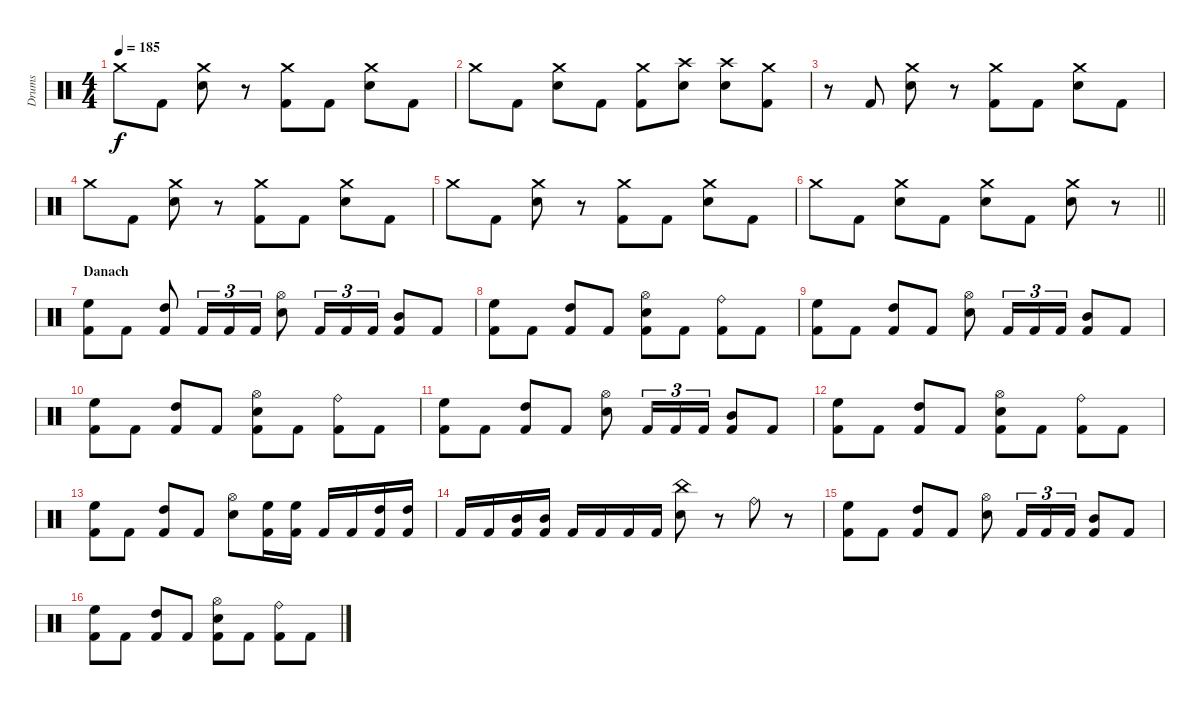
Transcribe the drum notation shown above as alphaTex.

\track ("Drums" "Drums") {instrument percussion}
\staff {score}
\articulation defaults
\ts (4 4)
\tempo 185
\clef neutral
\ks c "Crash medium (hit)".8{dy f} "Kick (hit) 2".8
("Crash medium (hit)" "Electric Snare (hit)").8 r.8 ("Crash medium (hit)" "Kick (hit) 2").8 "Kick (hit) 2".8 ("Crash medium (hit)" "Electric Snare (hit)").8 "Kick (hit) 2".8 |
"Crash medium (hit)".8 "Kick (hit) 2".8 ("Crash medium (hit)" "Electric Snare (hit)").8 "Kick (hit) 2".8 ("Crash medium (hit)" "Kick (hit) 2").8 ("Crash high (hit)" "Electric Snare (hit)").8 ("Crash high (hit)" "Electric Snare (hit)").8 ("Crash medium (hit)" "Kick (hit) 2").8 |
r.8 "Kick (hit) 2".8 ("Crash medium (hit)" "Electric Snare (hit)").8 r.8 ("Crash medium (hit)" "Kick (hit) 2").8 "Kick (hit) 2".8 ("Crash medium (hit)" "Electric Snare (hit)").8 "Kick (hit) 2".8 |
"Crash medium (hit)".8 "Kick (hit) 2".8 ("Crash medium (hit)" "Electric Snare (hit)").8 r.8 ("Crash medium (hit)" "Kick (hit) 2").8 "Kick (hit) 2".8 ("Crash medium (hit)" "Electric Snare (hit)").8 "Kick (hit) 2".8 |
"Crash medium (hit)".8 "Kick (hit) 2".8 ("Crash medium (hit)" "Electric Snare (hit)").8 r.8 ("Crash medium (hit)" "Kick (hit) 2").8 "Kick (hit) 2".8 ("Crash medium (hit)" "Electric Snare (hit)").8 "Kick (hit) 2".8 |
\barLineRight lightlight "Crash medium (hit)".8 "Kick (hit) 2".8
("Crash medium (hit)" "Electric Snare (hit)").8 "Kick (hit) 2".8 ("Crash medium (hit)" "Electric Snare (hit)").8 "Kick (hit) 2".8 ("Crash medium (hit)" "Electric Snare (hit)").8 r.8 |
\section ("" "Danach")
("High Floor Tom (hit)" "Kick (hit) 2").8 "Kick (hit) 2".8 ("High Tom (hit)" "Kick (hit) 2").8 "Kick (hit) 2".16{tu (3 2)} "Kick (hit) 2".16{tu (3 2)} "Kick (hit) 2".16{tu (3 2)} ("Hi-Hat (open)" "Electric Snare (hit)").8 "Kick (hit) 2".16{tu (3 2)} "Kick (hit) 2".16{tu (3 2)} "Kick (hit) 2".16{tu (3 2)} ("Mid Tom (hit)" "Kick (hit) 2").8 "Kick (hit) 2".8 |
("High Floor Tom (hit)" "Kick (hit) 2").8 "Kick (hit) 2".8 ("High Tom (hit)" "Kick (hit) 2").8 "Kick (hit) 2".8 ("Hi-Hat (open)" "Electric Snare (hit)" "Kick (hit) 2").8 "Kick (hit) 2".8 ("Ride (bell)" "Kick (hit) 2").8 "Kick (hit) 2".8 |
("High Floor Tom (hit)" "Kick (hit) 2").8 "Kick (hit) 2".8 ("High Tom (hit)" "Kick (hit) 2").8 "Kick (hit) 2".8 ("Hi-Hat (open)" "Electric Snare (hit)").8 "Kick (hit) 2".16{tu (3 2)} "Kick (hit) 2".16{tu (3 2)} "Kick (hit) 2".16{tu (3 2)} ("Mid Tom (hit)" "Kick (hit) 2").8 "Kick (hit) 2".8 |
("High Floor Tom (hit)" "Kick (hit) 2").8 "Kick (hit) 2".8 ("High Tom (hit)" "Kick (hit) 2").8 "Kick (hit) 2".8 ("Hi-Hat (open)" "Electric Snare (hit)" "Kick (hit) 2").8 "Kick (hit) 2".8 ("Ride (bell)" "Kick (hit) 2").8 "Kick (hit) 2".8 |
("High Floor Tom (hit)" "Kick (hit) 2").8 "Kick (hit) 2".8 ("High Tom (hit)" "Kick (hit) 2").8 "Kick (hit) 2".8 ("Hi-Hat (open)" "Electric Snare (hit)").8 "Kick (hit) 2".16{tu (3 2)} "Kick (hit) 2".16{tu (3 2)} "Kick (hit) 2".16{tu (3 2)} ("Mid Tom (hit)" "Kick (hit) 2").8 "Kick (hit) 2".8 |
("High Floor Tom (hit)" "Kick (hit) 2").8 "Kick (hit) 2".8 ("High Tom (hit)" "Kick (hit) 2").8 "Kick (hit) 2".8 ("Hi-Hat (open)" "Electric Snare (hit)" "Kick (hit) 2").8 "Kick (hit) 2".8 ("Ride (bell)" "Kick (hit) 2").8 "Kick (hit) 2".8 |
("High Floor Tom (hit)" "Kick (hit) 2").8 "Kick (hit) 2".8 ("High Tom (hit)" "Kick (hit) 2").8 "Kick (hit) 2".8 ("Hi-Hat (open)" "Electric Snare (hit)").8 ("High Floor Tom (hit)" "Kick (hit) 2").16 ("High Floor Tom (hit)" "Kick (hit) 2").16 "Kick (hit) 2".16 "Kick (hit) 2".16 ("High Tom (hit)" "Kick (hit) 2").16 ("High Tom (hit)" "Kick (hit) 2").16 |
"Kick (hit) 2".16 "Kick (hit) 2".16 ("Mid Tom (hit)" "Kick (hit) 2").16 ("Mid Tom (hit)" "Kick (hit) 2").16 "Kick (hit) 2".16 "Kick (hit) 2".16 "Kick (hit) 2".16 "Kick (hit) 2".16 ("China (hit)" "Electric Snare (hit)").8 r.8 "Ride (bell)".8 r.8 |
("High Floor Tom (hit)" "Kick (hit) 2").8 "Kick (hit) 2".8 ("High Tom (hit)" "Kick (hit) 2").8 "Kick (hit) 2".8 ("Hi-Hat (open)" "Electric Snare (hit)").8 "Kick (hit) 2".16{tu (3 2)} "Kick (hit) 2".16{tu (3 2)} "Kick (hit) 2".16{tu (3 2)} ("Mid Tom (hit)" "Kick (hit) 2").8 "Kick (hit) 2".8 |
("High Floor Tom (hit)" "Kick (hit) 2").8 "Kick (hit) 2".8 ("High Tom (hit)" "Kick (hit) 2").8 "Kick (hit) 2".8 ("Hi-Hat (open)" "Electric Snare (hit)" "Kick (hit) 2").8 "Kick (hit) 2".8 ("Ride (bell)" "Kick (hit) 2").8 "Kick (hit) 2".8
